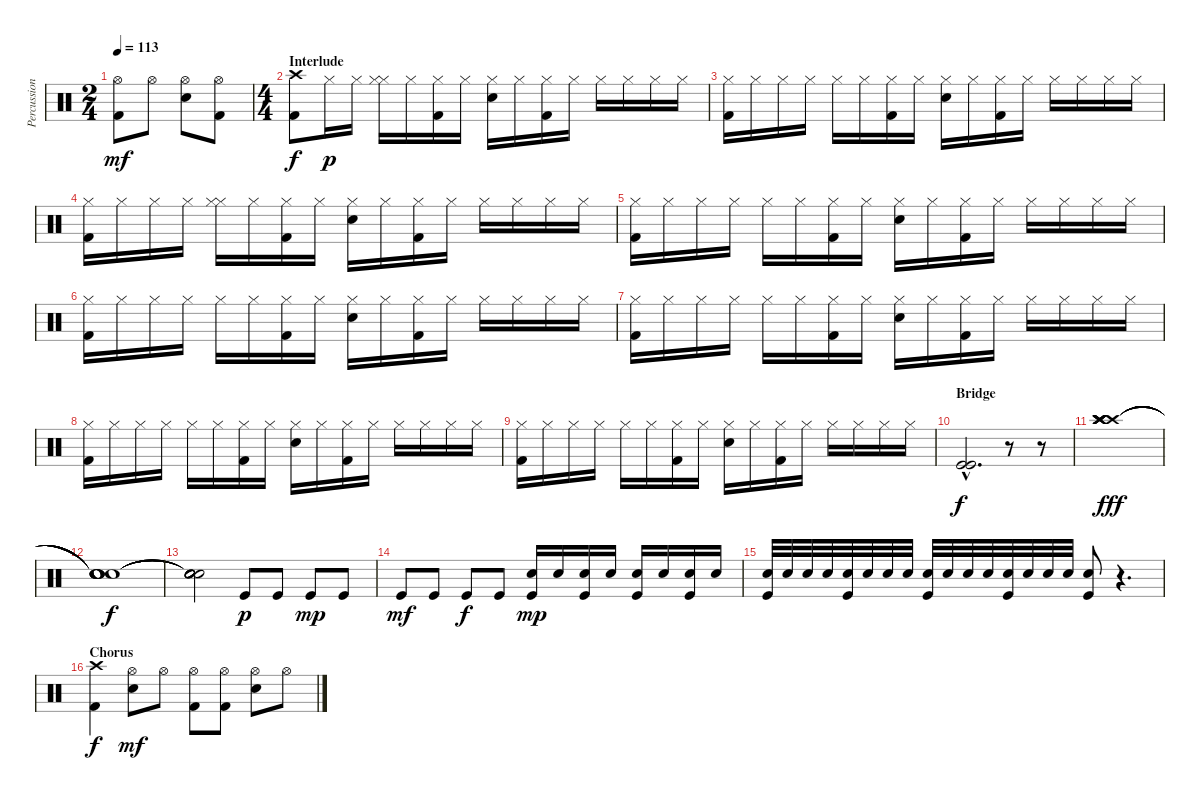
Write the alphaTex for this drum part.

\track ("Percussion" "Percussion") {instrument percussion}
\staff {score}
\articulation defaults
\ts (2 4)
\tempo 113
\clef neutral
\ks c
("Hi-Hat (open)" "Kick (hit) 2").8{dy mf} "Hi-Hat (open)".8 ("Hi-Hat (open)" "Electric Snare (hit)").8 ("Hi-Hat (open)" "Kick (hit) 2").8 |
\ts (4 4)
\section ("" "Interlude")
("Crash high (hit)" "Kick (hit) 2").8{dy f} "Hi-Hat (closed)".16{dy p} "Hi-Hat (closed)".16 ("Hi-Hat (closed)" "Hi-Hat (closed)").16 "Hi-Hat (closed)".16 ("Hi-Hat (closed)" "Kick (hit) 2").16 "Hi-Hat (closed)".16 ("Hi-Hat (closed)" "Electric Snare (hit)").16 "Hi-Hat (closed)".16 ("Hi-Hat (closed)" "Kick (hit) 2").16 "Hi-Hat (closed)".16 "Hi-Hat (closed)".16 "Hi-Hat (closed)".16 "Hi-Hat (closed)".16 "Hi-Hat (closed)".16 |
("Hi-Hat (closed)" "Kick (hit) 2").16 "Hi-Hat (closed)".16 "Hi-Hat (closed)".16 "Hi-Hat (closed)".16 "Hi-Hat (closed)".16 "Hi-Hat (closed)".16 ("Hi-Hat (closed)" "Kick (hit) 2").16 "Hi-Hat (closed)".16 ("Hi-Hat (closed)" "Electric Snare (hit)").16 "Hi-Hat (closed)".16 ("Hi-Hat (closed)" "Kick (hit) 2").16 "Hi-Hat (closed)".16 "Hi-Hat (closed)".16 "Hi-Hat (closed)".16 "Hi-Hat (closed)".16 "Hi-Hat (closed)".16 |
("Hi-Hat (closed)" "Kick (hit) 2").16 "Hi-Hat (closed)".16 "Hi-Hat (closed)".16 "Hi-Hat (closed)".16 ("Hi-Hat (closed)" "Hi-Hat (closed)").16 "Hi-Hat (closed)".16 ("Hi-Hat (closed)" "Kick (hit) 2").16 "Hi-Hat (closed)".16 ("Hi-Hat (closed)" "Electric Snare (hit)").16 "Hi-Hat (closed)".16 ("Hi-Hat (closed)" "Kick (hit) 2").16 "Hi-Hat (closed)".16 "Hi-Hat (closed)".16 "Hi-Hat (closed)".16 "Hi-Hat (closed)".16 "Hi-Hat (closed)".16 |
("Hi-Hat (closed)" "Kick (hit) 2").16 "Hi-Hat (closed)".16 "Hi-Hat (closed)".16 "Hi-Hat (closed)".16 "Hi-Hat (closed)".16 "Hi-Hat (closed)".16 ("Hi-Hat (closed)" "Kick (hit) 2").16 "Hi-Hat (closed)".16 ("Hi-Hat (closed)" "Electric Snare (hit)").16 "Hi-Hat (closed)".16 ("Hi-Hat (closed)" "Kick (hit) 2").16 "Hi-Hat (closed)".16 "Hi-Hat (closed)".16 "Hi-Hat (closed)".16 "Hi-Hat (closed)".16 "Hi-Hat (closed)".16 |
("Hi-Hat (closed)" "Kick (hit) 2").16 "Hi-Hat (closed)".16 "Hi-Hat (closed)".16 "Hi-Hat (closed)".16 "Hi-Hat (closed)".16 "Hi-Hat (closed)".16 ("Hi-Hat (closed)" "Kick (hit) 2").16 "Hi-Hat (closed)".16 ("Hi-Hat (closed)" "Electric Snare (hit)").16 "Hi-Hat (closed)".16 ("Hi-Hat (closed)" "Kick (hit) 2").16 "Hi-Hat (closed)".16 "Hi-Hat (closed)".16 "Hi-Hat (closed)".16 "Hi-Hat (closed)".16 "Hi-Hat (closed)".16 |
("Hi-Hat (closed)" "Kick (hit) 2").16 "Hi-Hat (closed)".16 "Hi-Hat (closed)".16 "Hi-Hat (closed)".16 "Hi-Hat (closed)".16 "Hi-Hat (closed)".16 ("Hi-Hat (closed)" "Kick (hit) 2").16 "Hi-Hat (closed)".16 ("Hi-Hat (closed)" "Electric Snare (hit)").16 "Hi-Hat (closed)".16 ("Hi-Hat (closed)" "Kick (hit) 2").16 "Hi-Hat (closed)".16 "Hi-Hat (closed)".16 "Hi-Hat (closed)".16 "Hi-Hat (closed)".16 "Hi-Hat (closed)".16 |
("Hi-Hat (closed)" "Kick (hit) 2").16 "Hi-Hat (closed)".16 "Hi-Hat (closed)".16 "Hi-Hat (closed)".16 "Hi-Hat (closed)".16 "Hi-Hat (closed)".16 ("Hi-Hat (closed)" "Kick (hit) 2").16 "Hi-Hat (closed)".16 ("Hi-Hat (closed)" "Electric Snare (hit)").16 "Hi-Hat (closed)".16 ("Hi-Hat (closed)" "Kick (hit) 2").16 "Hi-Hat (closed)".16 "Hi-Hat (closed)".16 "Hi-Hat (closed)".16 "Hi-Hat (closed)".16 "Hi-Hat (closed)".16 |
("Hi-Hat (closed)" "Kick (hit) 2").16 "Hi-Hat (closed)".16 "Hi-Hat (closed)".16 "Hi-Hat (closed)".16 "Hi-Hat (closed)".16 "Hi-Hat (closed)".16 ("Hi-Hat (closed)" "Kick (hit) 2").16 "Hi-Hat (closed)".16 ("Hi-Hat (closed)" "Electric Snare (hit)").16 "Hi-Hat (closed)".16 ("Hi-Hat (closed)" "Kick (hit) 2").16 "Hi-Hat (closed)".16 "Hi-Hat (closed)".16 "Hi-Hat (closed)".16 "Hi-Hat (closed)".16 "Hi-Hat (closed)".16 |
\section ("" "Bridge")
("Kick (hit)"{hac} "Kick (hit)"{hac}).2{d dy f} r.8 r.8{volume 0} |
("Crash high (hit)" "Crash high (hit)" "Crash high (hit)" "Crash high (hit)" "Crash high (hit)" "Crash high (hit)").1{dy fff volume 16} |
("Snare (hit)"{t} "Snare (hit)"{t} "Snare (hit)"{t} "Snare (hit)"{t} "Snare (hit)"{t} "Snare (hit)"{t}).1{dy f} |
("Snare (hit)"{t} "Snare (hit)"{t} "Snare (hit)"{t} "Snare (hit)"{t} "Snare (hit)"{t} "Snare (hit)"{t}).2 "Kick (hit)".8{dy p volume 13} "Kick (hit)".8 "Kick (hit)".8{dy mp} "Kick (hit)".8 |
"Kick (hit)".8{dy mf} "Kick (hit)".8 "Kick (hit)".8{dy f} "Kick (hit)".8 ("Electric Snare (hit)" "Kick (hit)").16{dy mp} "Electric Snare (hit)".16 ("Electric Snare (hit)" "Kick (hit)").16 "Electric Snare (hit)".16 ("Electric Snare (hit)" "Kick (hit)").16 "Electric Snare (hit)".16 ("Electric Snare (hit)" "Kick (hit)").16 "Electric Snare (hit)".16 |
("Electric Snare (hit)" "Kick (hit)").32 "Electric Snare (hit)".32 "Electric Snare (hit)".32 "Electric Snare (hit)".32 ("Electric Snare (hit)" "Kick (hit)").32 "Electric Snare (hit)".32 "Electric Snare (hit)".32 "Electric Snare (hit)".32 ("Electric Snare (hit)" "Kick (hit)").32 "Electric Snare (hit)".32 "Electric Snare (hit)".32 "Electric Snare (hit)".32 ("Electric Snare (hit)" "Kick (hit)").32 "Electric Snare (hit)".32 "Electric Snare (hit)".32 "Electric Snare (hit)".32 ("Electric Snare (hit)" "Kick (hit)").8 r.4{d} |
\section ("" "Chorus")
("Crash high (hit)" "Kick (hit) 2").4{dy f} ("Hi-Hat (open)" "Electric Snare (hit)").8{dy mf} "Hi-Hat (open)".8 ("Hi-Hat (open)" "Kick (hit) 2").8 ("Hi-Hat (open)" "Kick (hit) 2").8 ("Hi-Hat (open)" "Electric Snare (hit)").8 "Hi-Hat (open)".8
